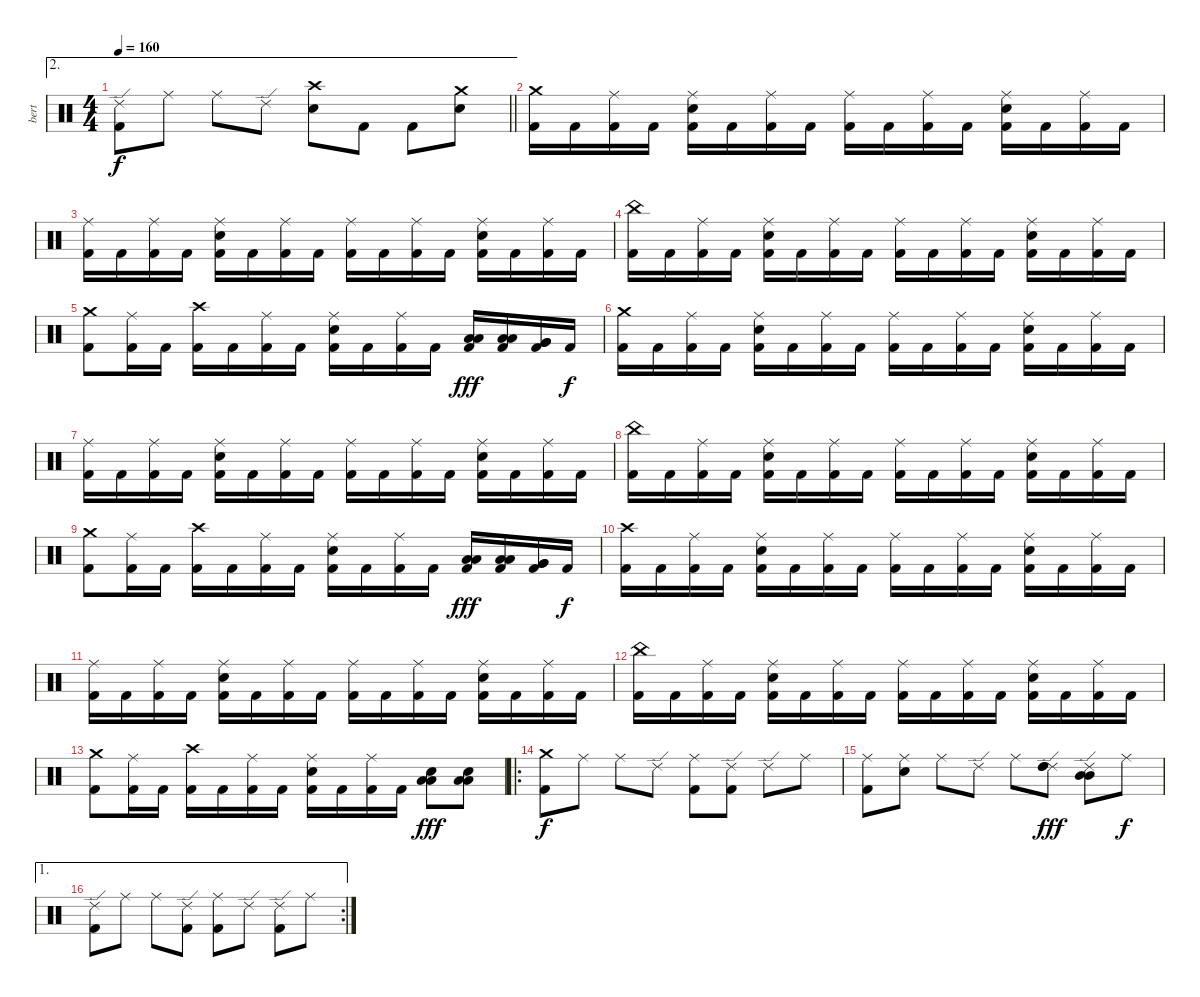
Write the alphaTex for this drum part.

\track ("bert" "bert") {instrument percussion}
\staff {score}
\articulation defaults
\ae 2
\ts (4 4)
\tempo 160
\clef neutral
\barLineRight lightlight
\ks c
("Ride (edge) 2" "Kick (hit) 2").8{dy f} "Ride (middle)".8 "Ride (middle)".8 "Ride (edge) 2".8 ("Crash high (hit)" "Snare (hit) 2").8 "Kick (hit) 2".8 "Kick (hit) 2".8 ("Crash medium (hit)" "Snare (hit) 2").8 |
("Crash medium (hit)" "Kick (hit) 2").16 "Kick (hit) 2".16 ("Ride (middle)" "Kick (hit) 2").16 "Kick (hit) 2".16 ("Ride (middle)" "Snare (hit) 2" "Kick (hit) 2").16 "Kick (hit) 2".16 ("Ride (middle)" "Kick (hit) 2").16 "Kick (hit) 2".16 ("Ride (middle)" "Kick (hit) 2").16 "Kick (hit) 2".16 ("Ride (middle)" "Kick (hit) 2").16 "Kick (hit) 2".16 ("Ride (middle)" "Snare (hit) 2" "Kick (hit) 2").16 "Kick (hit) 2".16 ("Ride (middle)" "Kick (hit) 2").16 "Kick (hit) 2".16 |
("Ride (middle)" "Kick (hit) 2").16 "Kick (hit) 2".16 ("Ride (middle)" "Kick (hit) 2").16 "Kick (hit) 2".16 ("Ride (middle)" "Snare (hit) 2" "Kick (hit) 2").16 "Kick (hit) 2".16 ("Ride (middle)" "Kick (hit) 2").16 "Kick (hit) 2".16 ("Ride (middle)" "Kick (hit) 2").16 "Kick (hit) 2".16 ("Ride (middle)" "Kick (hit) 2").16 "Kick (hit) 2".16 ("Ride (middle)" "Snare (hit) 2" "Kick (hit) 2").16 "Kick (hit) 2".16 ("Ride (middle)" "Kick (hit) 2").16 "Kick (hit) 2".16 |
("China (hit)" "Kick (hit) 2").16 "Kick (hit) 2".16 ("Ride (middle)" "Kick (hit) 2").16 "Kick (hit) 2".16 ("Ride (middle)" "Snare (hit) 2" "Kick (hit) 2").16 "Kick (hit) 2".16 ("Ride (middle)" "Kick (hit) 2").16 "Kick (hit) 2".16 ("Ride (middle)" "Kick (hit) 2").16 "Kick (hit) 2".16 ("Ride (middle)" "Kick (hit) 2").16 "Kick (hit) 2".16 ("Ride (middle)" "Snare (hit) 2" "Kick (hit) 2").16 "Kick (hit) 2".16 ("Ride (middle)" "Kick (hit) 2").16 "Kick (hit) 2".16 |
("Crash medium (hit)" "Kick (hit) 2").8 ("Ride (middle)" "Kick (hit) 2").16 "Kick (hit) 2".16 ("Crash high (hit)" "Kick (hit) 2").16 "Kick (hit) 2".16 ("Ride (middle)" "Kick (hit) 2").16 "Kick (hit) 2".16 ("Ride (middle)" "Snare (hit) 2" "Kick (hit) 2").16 "Kick (hit) 2".16 ("Ride (middle)" "Kick (hit) 2").16 "Kick (hit) 2".16 ("Low Tom (hit)" "Low Tom (hit)" "Kick (hit) 2").16{dy fff} ("Low Tom (hit)" "Low Tom (hit)" "Kick (hit) 2").16 ("Very Low Tom (hit)" "Very Low Tom (hit)" "Kick (hit) 2").16 "Kick (hit) 2".16{dy f} |
("Crash medium (hit)" "Kick (hit) 2").16 "Kick (hit) 2".16 ("Ride (middle)" "Kick (hit) 2").16 "Kick (hit) 2".16 ("Ride (middle)" "Snare (hit) 2" "Kick (hit) 2").16 "Kick (hit) 2".16 ("Ride (middle)" "Kick (hit) 2").16 "Kick (hit) 2".16 ("Ride (middle)" "Kick (hit) 2").16 "Kick (hit) 2".16 ("Ride (middle)" "Kick (hit) 2").16 "Kick (hit) 2".16 ("Ride (middle)" "Snare (hit) 2" "Kick (hit) 2").16 "Kick (hit) 2".16 ("Ride (middle)" "Kick (hit) 2").16 "Kick (hit) 2".16 |
("Ride (middle)" "Kick (hit) 2").16 "Kick (hit) 2".16 ("Ride (middle)" "Kick (hit) 2").16 "Kick (hit) 2".16 ("Ride (middle)" "Snare (hit) 2" "Kick (hit) 2").16 "Kick (hit) 2".16 ("Ride (middle)" "Kick (hit) 2").16 "Kick (hit) 2".16 ("Ride (middle)" "Kick (hit) 2").16 "Kick (hit) 2".16 ("Ride (middle)" "Kick (hit) 2").16 "Kick (hit) 2".16 ("Ride (middle)" "Snare (hit) 2" "Kick (hit) 2").16 "Kick (hit) 2".16 ("Ride (middle)" "Kick (hit) 2").16 "Kick (hit) 2".16 |
("China (hit)" "Kick (hit) 2").16 "Kick (hit) 2".16 ("Ride (middle)" "Kick (hit) 2").16 "Kick (hit) 2".16 ("Ride (middle)" "Snare (hit) 2" "Kick (hit) 2").16 "Kick (hit) 2".16 ("Ride (middle)" "Kick (hit) 2").16 "Kick (hit) 2".16 ("Ride (middle)" "Kick (hit) 2").16 "Kick (hit) 2".16 ("Ride (middle)" "Kick (hit) 2").16 "Kick (hit) 2".16 ("Ride (middle)" "Snare (hit) 2" "Kick (hit) 2").16 "Kick (hit) 2".16 ("Ride (middle)" "Kick (hit) 2").16 "Kick (hit) 2".16 |
("Crash medium (hit)" "Kick (hit) 2").8 ("Ride (middle)" "Kick (hit) 2").16 "Kick (hit) 2".16 ("Crash high (hit)" "Kick (hit) 2").16 "Kick (hit) 2".16 ("Ride (middle)" "Kick (hit) 2").16 "Kick (hit) 2".16 ("Ride (middle)" "Snare (hit) 2" "Kick (hit) 2").16 "Kick (hit) 2".16 ("Ride (middle)" "Kick (hit) 2").16 "Kick (hit) 2".16 ("Low Tom (hit)" "Low Tom (hit)" "Kick (hit) 2").16{dy fff} ("Low Tom (hit)" "Low Tom (hit)" "Kick (hit) 2").16 ("Very Low Tom (hit)" "Very Low Tom (hit)" "Kick (hit) 2").16 "Kick (hit) 2".16{dy f} |
("Crash high (hit)" "Kick (hit) 2").16 "Kick (hit) 2".16 ("Ride (middle)" "Kick (hit) 2").16 "Kick (hit) 2".16 ("Ride (middle)" "Snare (hit) 2" "Kick (hit) 2").16 "Kick (hit) 2".16 ("Ride (middle)" "Kick (hit) 2").16 "Kick (hit) 2".16 ("Ride (middle)" "Kick (hit) 2").16 "Kick (hit) 2".16 ("Ride (middle)" "Kick (hit) 2").16 "Kick (hit) 2".16 ("Ride (middle)" "Snare (hit) 2" "Kick (hit) 2").16 "Kick (hit) 2".16 ("Ride (middle)" "Kick (hit) 2").16 "Kick (hit) 2".16 |
("Ride (middle)" "Kick (hit) 2").16 "Kick (hit) 2".16 ("Ride (middle)" "Kick (hit) 2").16 "Kick (hit) 2".16 ("Ride (middle)" "Snare (hit) 2" "Kick (hit) 2").16 "Kick (hit) 2".16 ("Ride (middle)" "Kick (hit) 2").16 "Kick (hit) 2".16 ("Ride (middle)" "Kick (hit) 2").16 "Kick (hit) 2".16 ("Ride (middle)" "Kick (hit) 2").16 "Kick (hit) 2".16 ("Ride (middle)" "Snare (hit) 2" "Kick (hit) 2").16 "Kick (hit) 2".16 ("Ride (middle)" "Kick (hit) 2").16 "Kick (hit) 2".16 |
("China (hit)" "Kick (hit) 2").16 "Kick (hit) 2".16 ("Ride (middle)" "Kick (hit) 2").16 "Kick (hit) 2".16 ("Ride (middle)" "Snare (hit) 2" "Kick (hit) 2").16 "Kick (hit) 2".16 ("Ride (middle)" "Kick (hit) 2").16 "Kick (hit) 2".16 ("Ride (middle)" "Kick (hit) 2").16 "Kick (hit) 2".16 ("Ride (middle)" "Kick (hit) 2").16 "Kick (hit) 2".16 ("Ride (middle)" "Snare (hit) 2" "Kick (hit) 2").16 "Kick (hit) 2".16 ("Ride (middle)" "Kick (hit) 2").16 "Kick (hit) 2".16 |
("Crash medium (hit)" "Kick (hit) 2").8 ("Ride (middle)" "Kick (hit) 2").16 "Kick (hit) 2".16 ("Crash high (hit)" "Kick (hit) 2").16 "Kick (hit) 2".16 ("Ride (middle)" "Kick (hit) 2").16 "Kick (hit) 2".16 ("Ride (middle)" "Snare (hit) 2" "Kick (hit) 2").16 "Kick (hit) 2".16 ("Ride (middle)" "Kick (hit) 2").16 "Kick (hit) 2".16 ("Snare (hit) 2" "Low Floor Tom (hit)" "Low Floor Tom (hit)").8{dy fff} ("Snare (hit) 2" "Low Floor Tom (hit)" "Low Floor Tom (hit)").8 |
\ro
("Crash medium (hit)" "Kick (hit) 2").8{dy f} "Ride (middle)".8 "Ride (middle)".8 "Ride (edge) 2".8 ("Ride (middle)" "Kick (hit) 2").8 ("Ride (edge) 2" "Kick (hit) 2").8 "Ride (edge) 2".8 "Ride (middle)".8 |
("Ride (middle)" "Kick (hit) 2").8 ("Ride (middle)" "Snare (hit) 2").8 "Ride (middle)".8 "Ride (edge) 2".8 "Ride (middle)".8 ("Ride (edge) 2" "High Tom (hit)" "High Tom (hit)").8{dy fff} ("Ride (edge) 2" "Mid Tom (hit)" "Mid Tom (hit)").8 "Ride (middle)".8{dy f} |
\ae 1
\rc 2
("Ride (edge) 2" "Kick (hit) 2").8 "Ride (middle)".8 "Ride (middle)".8 ("Ride (edge) 2" "Kick (hit) 2").8 ("Ride (middle)" "Kick (hit) 2").8 "Ride (edge) 2".8 ("Ride (edge) 2" "Kick (hit) 2").8 "Ride (middle)".8
